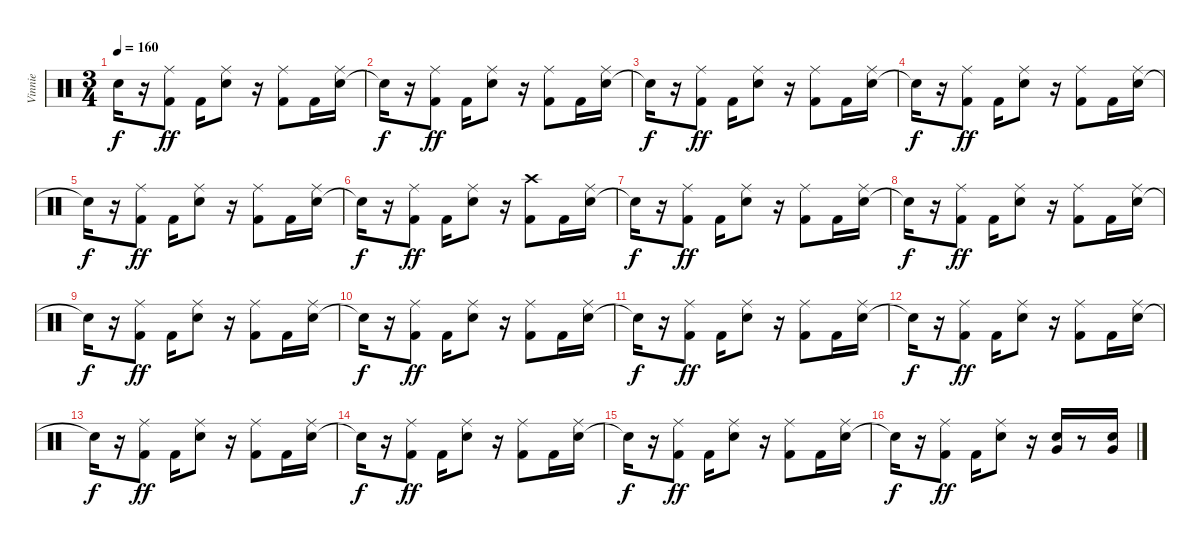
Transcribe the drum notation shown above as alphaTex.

\track ("Vinnie" "Vinnie") {instrument percussion}
\staff {score}
\articulation defaults
\ts (3 4)
\tempo 160
\clef neutral
\ks c "Snare (hit)"{t}.16{dy f}
r.16 ("Kick (hit) 2" "Ride (middle)").8{dy ff} "Kick (hit) 2".16 ("Electric Snare (hit)" "Ride (middle)").8 r.16 ("Kick (hit) 2" "Ride (middle)").8 "Kick (hit) 2".16 ("Electric Snare (hit)" "Ride (middle)").16 |
"Snare (hit)"{t}.16{dy f} r.16 ("Kick (hit) 2" "Ride (middle)").8{dy ff} "Kick (hit) 2".16 ("Electric Snare (hit)" "Ride (middle)").8 r.16 ("Kick (hit) 2" "Ride (middle)").8 "Kick (hit) 2".16 ("Electric Snare (hit)" "Ride (middle)").16 |
"Snare (hit)"{t}.16{dy f} r.16 ("Kick (hit) 2" "Ride (middle)").8{dy ff} "Kick (hit) 2".16 ("Electric Snare (hit)" "Ride (middle)").8 r.16 ("Kick (hit) 2" "Ride (middle)").8 "Kick (hit) 2".16 ("Electric Snare (hit)" "Ride (middle)").16 |
"Snare (hit)"{t}.16{dy f} r.16 ("Kick (hit) 2" "Ride (middle)").8{dy ff} "Kick (hit) 2".16 ("Electric Snare (hit)" "Ride (middle)").8 r.16 ("Kick (hit) 2" "Ride (middle)").8 "Kick (hit) 2".16 ("Electric Snare (hit)" "Ride (middle)").16 |
"Snare (hit)"{t}.16{dy f} r.16 ("Kick (hit) 2" "Ride (middle)").8{dy ff} "Kick (hit) 2".16 ("Electric Snare (hit)" "Ride (middle)").8 r.16 ("Kick (hit) 2" "Ride (middle)").8 "Kick (hit) 2".16 ("Electric Snare (hit)" "Ride (middle)").16 |
"Snare (hit)"{t}.16{dy f} r.16 ("Kick (hit) 2" "Ride (middle)").8{dy ff} "Kick (hit) 2".16 ("Electric Snare (hit)" "Ride (middle)").8 r.16 ("Kick (hit) 2" "Crash high (hit)").8 "Kick (hit) 2".16 ("Electric Snare (hit)" "Ride (middle)").16 |
"Snare (hit)"{t}.16{dy f} r.16 ("Kick (hit) 2" "Ride (middle)").8{dy ff} "Kick (hit) 2".16 ("Electric Snare (hit)" "Ride (middle)").8 r.16 ("Kick (hit) 2" "Ride (middle)").8 "Kick (hit) 2".16 ("Electric Snare (hit)" "Ride (middle)").16 |
"Snare (hit)"{t}.16{dy f} r.16 ("Kick (hit) 2" "Ride (middle)").8{dy ff} "Kick (hit) 2".16 ("Electric Snare (hit)" "Ride (middle)").8 r.16 ("Kick (hit) 2" "Ride (middle)").8 "Kick (hit) 2".16 ("Electric Snare (hit)" "Ride (middle)").16 |
"Snare (hit)"{t}.16{dy f} r.16 ("Kick (hit) 2" "Ride (middle)").8{dy ff} "Kick (hit) 2".16 ("Electric Snare (hit)" "Ride (middle)").8 r.16 ("Kick (hit) 2" "Ride (middle)").8 "Kick (hit) 2".16 ("Electric Snare (hit)" "Ride (middle)").16 |
"Snare (hit)"{t}.16{dy f} r.16 ("Kick (hit) 2" "Ride (middle)").8{dy ff} "Kick (hit) 2".16 ("Electric Snare (hit)" "Ride (middle)").8 r.16 ("Kick (hit) 2" "Ride (middle)").8 "Kick (hit) 2".16 ("Electric Snare (hit)" "Ride (middle)").16 |
"Snare (hit)"{t}.16{dy f} r.16 ("Kick (hit) 2" "Ride (middle)").8{dy ff} "Kick (hit) 2".16 ("Electric Snare (hit)" "Ride (middle)").8 r.16 ("Kick (hit) 2" "Ride (middle)").8 "Kick (hit) 2".16 ("Electric Snare (hit)" "Ride (middle)").16 |
"Snare (hit)"{t}.16{dy f} r.16 ("Kick (hit) 2" "Ride (middle)").8{dy ff} "Kick (hit) 2".16 ("Electric Snare (hit)" "Ride (middle)").8 r.16 ("Kick (hit) 2" "Ride (middle)").8 "Kick (hit) 2".16 ("Electric Snare (hit)" "Ride (middle)").16 |
"Snare (hit)"{t}.16{dy f} r.16 ("Kick (hit) 2" "Ride (middle)").8{dy ff} "Kick (hit) 2".16 ("Electric Snare (hit)" "Ride (middle)").8 r.16 ("Kick (hit) 2" "Ride (middle)").8 "Kick (hit) 2".16 ("Electric Snare (hit)" "Ride (middle)").16 |
"Snare (hit)"{t}.16{dy f} r.16 ("Kick (hit) 2" "Ride (middle)").8{dy ff} "Kick (hit) 2".16 ("Electric Snare (hit)" "Ride (middle)").8 r.16 ("Kick (hit) 2" "Ride (middle)").8 "Kick (hit) 2".16 ("Electric Snare (hit)" "Ride (middle)").16 |
"Snare (hit)"{t}.16{dy f} r.16 ("Kick (hit) 2" "Ride (middle)").8{dy ff} "Kick (hit) 2".16 ("Electric Snare (hit)" "Ride (middle)").8 r.16 ("Kick (hit) 2" "Ride (middle)").8 "Kick (hit) 2".16 ("Electric Snare (hit)" "Ride (middle)").16 |
"Snare (hit)"{t}.16{dy f} r.16 ("Kick (hit) 2" "Ride (middle)").8{dy ff} "Kick (hit) 2".16 ("Electric Snare (hit)" "Ride (middle)").8 r.16 ("Electric Snare (hit)" "Very Low Tom (hit)").16 r.8 ("Electric Snare (hit)" "Very Low Tom (hit)").16
